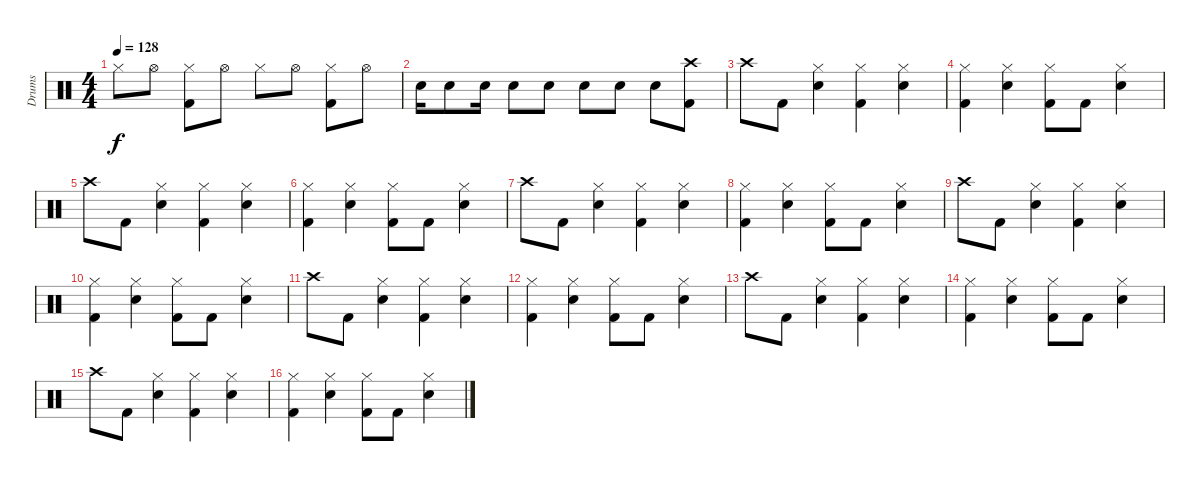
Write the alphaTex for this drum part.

\track ("Drums" "Drums") {instrument percussion}
\staff {score}
\articulation defaults
\ts (4 4)
\tempo 128
\clef neutral
\ks c "Hi-Hat (closed)".8{dy f} "Hi-Hat (open)".8
("Hi-Hat (closed)" "Kick (hit) 2").8 "Hi-Hat (open)".8 "Hi-Hat (closed)".8 "Hi-Hat (open)".8 ("Hi-Hat (closed)" "Kick (hit) 2").8 "Hi-Hat (open)".8 |
"Electric Snare (hit)".16 "Electric Snare (hit)".8 "Electric Snare (hit)".16 "Electric Snare (hit)".8 "Electric Snare (hit)".8 "Electric Snare (hit)".8 "Electric Snare (hit)".8 "Electric Snare (hit)".8 ("Crash high (hit)" "Kick (hit) 2").8 |
"Crash high (hit)".8 "Kick (hit) 2".8 ("Hi-Hat (closed)" "Electric Snare (hit)").4 ("Hi-Hat (closed)" "Kick (hit) 2").4 ("Hi-Hat (closed)" "Electric Snare (hit)").4 |
("Hi-Hat (closed)" "Kick (hit) 2").4 ("Hi-Hat (closed)" "Electric Snare (hit)").4 ("Hi-Hat (closed)" "Kick (hit) 2").8 "Kick (hit) 2".8 ("Hi-Hat (closed)" "Electric Snare (hit)").4 |
"Crash high (hit)".8 "Kick (hit) 2".8 ("Hi-Hat (closed)" "Electric Snare (hit)").4 ("Hi-Hat (closed)" "Kick (hit) 2").4 ("Hi-Hat (closed)" "Electric Snare (hit)").4 |
("Hi-Hat (closed)" "Kick (hit) 2").4 ("Hi-Hat (closed)" "Electric Snare (hit)").4 ("Hi-Hat (closed)" "Kick (hit) 2").8 "Kick (hit) 2".8 ("Hi-Hat (closed)" "Electric Snare (hit)").4 |
"Crash high (hit)".8 "Kick (hit) 2".8 ("Hi-Hat (closed)" "Electric Snare (hit)").4 ("Hi-Hat (closed)" "Kick (hit) 2").4 ("Hi-Hat (closed)" "Electric Snare (hit)").4 |
("Hi-Hat (closed)" "Kick (hit) 2").4 ("Hi-Hat (closed)" "Electric Snare (hit)").4 ("Hi-Hat (closed)" "Kick (hit) 2").8 "Kick (hit) 2".8 ("Hi-Hat (closed)" "Electric Snare (hit)").4 |
"Crash high (hit)".8 "Kick (hit) 2".8 ("Hi-Hat (closed)" "Electric Snare (hit)").4 ("Hi-Hat (closed)" "Kick (hit) 2").4 ("Hi-Hat (closed)" "Electric Snare (hit)").4 |
("Hi-Hat (closed)" "Kick (hit) 2").4 ("Hi-Hat (closed)" "Electric Snare (hit)").4 ("Hi-Hat (closed)" "Kick (hit) 2").8 "Kick (hit) 2".8 ("Hi-Hat (closed)" "Electric Snare (hit)").4 |
"Crash high (hit)".8 "Kick (hit) 2".8 ("Hi-Hat (closed)" "Electric Snare (hit)").4 ("Hi-Hat (closed)" "Kick (hit) 2").4 ("Hi-Hat (closed)" "Electric Snare (hit)").4 |
("Hi-Hat (closed)" "Kick (hit) 2").4 ("Hi-Hat (closed)" "Electric Snare (hit)").4 ("Hi-Hat (closed)" "Kick (hit) 2").8 "Kick (hit) 2".8 ("Hi-Hat (closed)" "Electric Snare (hit)").4 |
"Crash high (hit)".8 "Kick (hit) 2".8 ("Hi-Hat (closed)" "Electric Snare (hit)").4 ("Hi-Hat (closed)" "Kick (hit) 2").4 ("Hi-Hat (closed)" "Electric Snare (hit)").4 |
("Hi-Hat (closed)" "Kick (hit) 2").4 ("Hi-Hat (closed)" "Electric Snare (hit)").4 ("Hi-Hat (closed)" "Kick (hit) 2").8 "Kick (hit) 2".8 ("Hi-Hat (closed)" "Electric Snare (hit)").4 |
"Crash high (hit)".8 "Kick (hit) 2".8 ("Hi-Hat (closed)" "Electric Snare (hit)").4 ("Hi-Hat (closed)" "Kick (hit) 2").4 ("Hi-Hat (closed)" "Electric Snare (hit)").4 |
("Hi-Hat (closed)" "Kick (hit) 2").4 ("Hi-Hat (closed)" "Electric Snare (hit)").4 ("Hi-Hat (closed)" "Kick (hit) 2").8 "Kick (hit) 2".8 ("Hi-Hat (closed)" "Electric Snare (hit)").4
